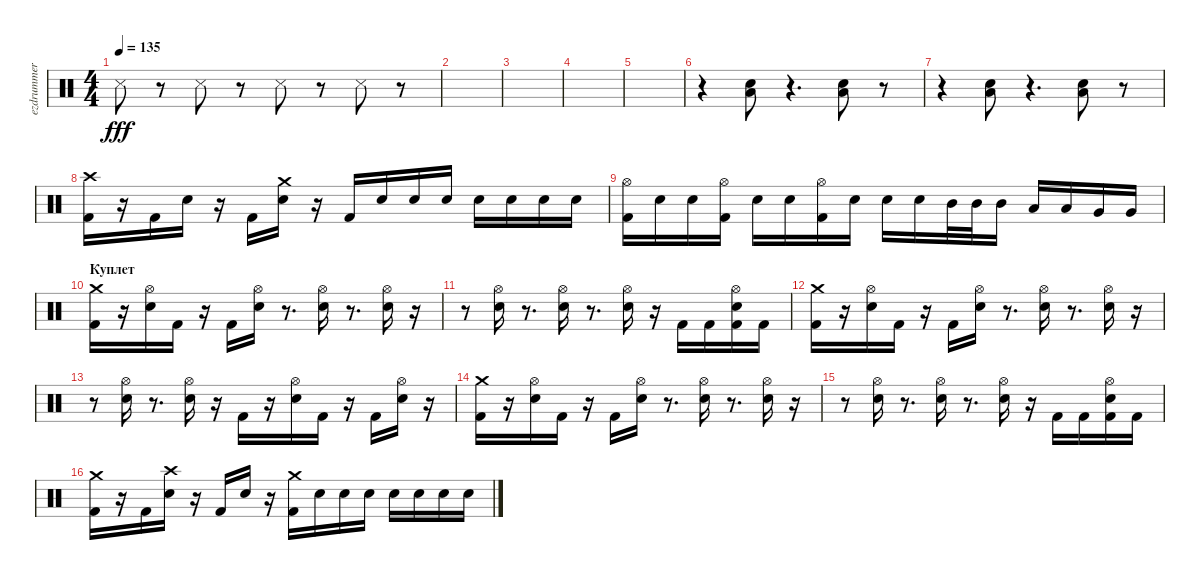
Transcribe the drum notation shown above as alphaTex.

\track ("ezdrummer 01" "ezdrummer ") {instrument percussion}
\staff {score}
\articulation defaults
\ts (4 4)
\tempo 135
\clef neutral
\ks c "Snare (side stick) 3".8{dy fff}
r.8 "Snare (side stick) 3".8 r.8 "Snare (side stick) 3".8 r.8 "Snare (side stick) 3".8 r.8 |
|
|
|
|
r.4 ("Snare (hit) 2" "Low Tom (hit)").8 r.4{d} ("Snare (hit) 2" "Low Tom (hit)").8 r.8 |
r.4 ("Snare (hit) 2" "Low Tom (hit)").8 r.4{d} ("Snare (hit) 2" "Low Tom (hit)").8 r.8 |
("Kick (hit) 2" "Crash high (hit)").16 r.16 "Kick (hit) 2".16 "Snare (hit) 2".16 r.16 "Kick (hit) 2".16 ("Snare (hit) 2" "Crash medium (hit)").16 r.16 "Kick (hit) 2".16 "Snare (hit) 2".16 "Snare (hit) 2".16 "Snare (hit) 2".16 "Snare (hit) 2".16 "Snare (hit) 2".16 "Snare (hit) 2".16 "Snare (hit) 2".16 |
("Kick (hit) 2" "Hi-Hat (open)").16 "Snare (hit) 2".16 "Snare (hit) 2".16 ("Kick (hit) 2" "Hi-Hat (open)").16 "Snare (hit) 2".16 "Snare (hit) 2".16 ("Kick (hit) 2" "Hi-Hat (open)").16 "Snare (hit) 2".16 "Snare (hit) 2".16 "Snare (hit) 2".16 "Mid Tom (hit)".32 "Mid Tom (hit)".32 "Mid Tom (hit)".16 "Low Tom (hit)".16 "Low Tom (hit)".16 "Very Low Tom (hit)".16 "Very Low Tom (hit)".16 |
\section ("" "Куплет")
("Kick (hit) 2" "Crash medium (hit)").16 r.16 ("Snare (hit) 2" "Hi-Hat (open)").16 "Kick (hit) 2".16 r.16 "Kick (hit) 2".16 ("Snare (hit) 2" "Hi-Hat (open)").16 r.8{d} ("Snare (hit) 2" "Hi-Hat (open)").16 r.8{d} ("Snare (hit) 2" "Hi-Hat (open)").16 r.16 |
r.8 ("Snare (hit) 2" "Hi-Hat (open)").16 r.8{d} ("Snare (hit) 2" "Hi-Hat (open)").16 r.8{d} ("Snare (hit) 2" "Hi-Hat (open)").16 r.16 "Kick (hit) 2".16 "Kick (hit) 2".16 ("Kick (hit) 2" "Snare (hit) 2" "Hi-Hat (open)").16 "Kick (hit) 2".16 |
("Kick (hit) 2" "Crash medium (hit)").16 r.16 ("Snare (hit) 2" "Hi-Hat (open)").16 "Kick (hit) 2".16 r.16 "Kick (hit) 2".16 ("Snare (hit) 2" "Hi-Hat (open)").16 r.8{d} ("Snare (hit) 2" "Hi-Hat (open)").16 r.8{d} ("Snare (hit) 2" "Hi-Hat (open)").16 r.16 |
r.8 ("Snare (hit) 2" "Hi-Hat (open)").16 r.8{d} ("Snare (hit) 2" "Hi-Hat (open)").16 r.16 "Kick (hit) 2".16 r.16 ("Snare (hit) 2" "Hi-Hat (open)").16 "Kick (hit) 2".16 r.16 "Kick (hit) 2".16 ("Snare (hit) 2" "Hi-Hat (open)").16 r.16 |
("Kick (hit) 2" "Crash medium (hit)").16 r.16 ("Snare (hit) 2" "Hi-Hat (open)").16 "Kick (hit) 2".16 r.16 "Kick (hit) 2".16 ("Snare (hit) 2" "Hi-Hat (open)").16 r.8{d} ("Snare (hit) 2" "Hi-Hat (open)").16 r.8{d} ("Snare (hit) 2" "Hi-Hat (open)").16 r.16 |
r.8 ("Snare (hit) 2" "Hi-Hat (open)").16 r.8{d} ("Snare (hit) 2" "Hi-Hat (open)").16 r.8{d} ("Snare (hit) 2" "Hi-Hat (open)").16 r.16 "Kick (hit) 2".16 "Kick (hit) 2".16 ("Kick (hit) 2" "Snare (hit) 2" "Hi-Hat (open)").16 "Kick (hit) 2".16 |
("Kick (hit) 2" "Crash medium (hit)").16 r.16 "Kick (hit) 2".16 ("Snare (hit) 2" "Crash high (hit)").16 r.16 "Kick (hit) 2".16 "Snare (hit) 2".16 r.16 ("Kick (hit) 2" "Crash medium (hit)").16 "Snare (hit) 2".16 "Snare (hit) 2".16 "Snare (hit) 2".16 "Snare (hit) 2".16 "Snare (hit) 2".16 "Snare (hit) 2".16 "Snare (hit) 2".16
